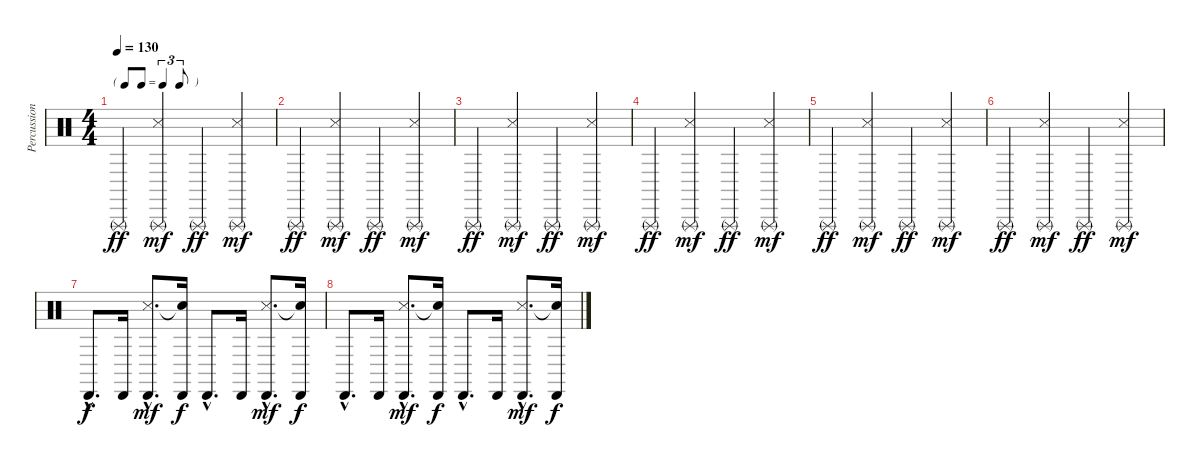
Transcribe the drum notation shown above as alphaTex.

\track ("Percussion" "Percussion") {instrument percussion}
\staff {score}
\articulation defaults
\ts (4 4)
\tf triplet8th
\tempo 130
\clef neutral
\ks c "Triangle (rnute)".4{dy ff}
("Triangle (rnute)" "Snare (side stick) 3").4{dy mf} "Triangle (rnute)".4{dy ff} ("Triangle (rnute)" "Snare (side stick) 3").4{dy mf} |
"Triangle (rnute)".4{dy ff} ("Triangle (rnute)" "Snare (side stick) 3").4{dy mf} "Triangle (rnute)".4{dy ff} ("Triangle (rnute)" "Snare (side stick) 3").4{dy mf} |
"Triangle (rnute)".4{dy ff} ("Triangle (rnute)" "Snare (side stick) 3").4{dy mf} "Triangle (rnute)".4{dy ff} ("Triangle (rnute)" "Snare (side stick) 3").4{dy mf} |
"Triangle (rnute)".4{dy ff} ("Triangle (rnute)" "Snare (side stick) 3").4{dy mf} "Triangle (rnute)".4{dy ff} ("Triangle (rnute)" "Snare (side stick) 3").4{dy mf} |
"Triangle (rnute)".4{dy ff} ("Triangle (rnute)" "Snare (side stick) 3").4{dy mf} "Triangle (rnute)".4{dy ff} ("Triangle (rnute)" "Snare (side stick) 3").4{dy mf} |
"Triangle (rnute)".4{dy ff} ("Triangle (rnute)" "Snare (side stick) 3").4{dy mf} "Triangle (rnute)".4{dy ff} ("Triangle (rnute)" "Snare (side stick) 3").4{dy mf} |
"Cabasa (hit)"{hac}.8{d dy f} "Cabasa (hit)".16 ("Cabasa (hit)"{hac} "Snare (side stick) 3"{hac}).8{d dy mf} ("Cabasa (hit)" "Snare (hit)"{t}).16{dy f} "Cabasa (hit)"{hac}.8{d} "Cabasa (hit)".16 ("Cabasa (hit)"{hac} "Snare (side stick) 3"{hac}).8{d dy mf} ("Cabasa (hit)" "Snare (hit)"{t}).16{dy f} |
"Cabasa (hit)"{hac}.8{d} "Cabasa (hit)".16 ("Cabasa (hit)"{hac} "Snare (side stick) 3"{hac}).8{d dy mf} ("Cabasa (hit)" "Snare (hit)"{t}).16{dy f} "Cabasa (hit)"{hac}.8{d} "Cabasa (hit)".16 ("Cabasa (hit)"{hac} "Snare (side stick) 3"{hac}).8{d dy mf} ("Cabasa (hit)" "Snare (hit)"{t}).16{dy f}
